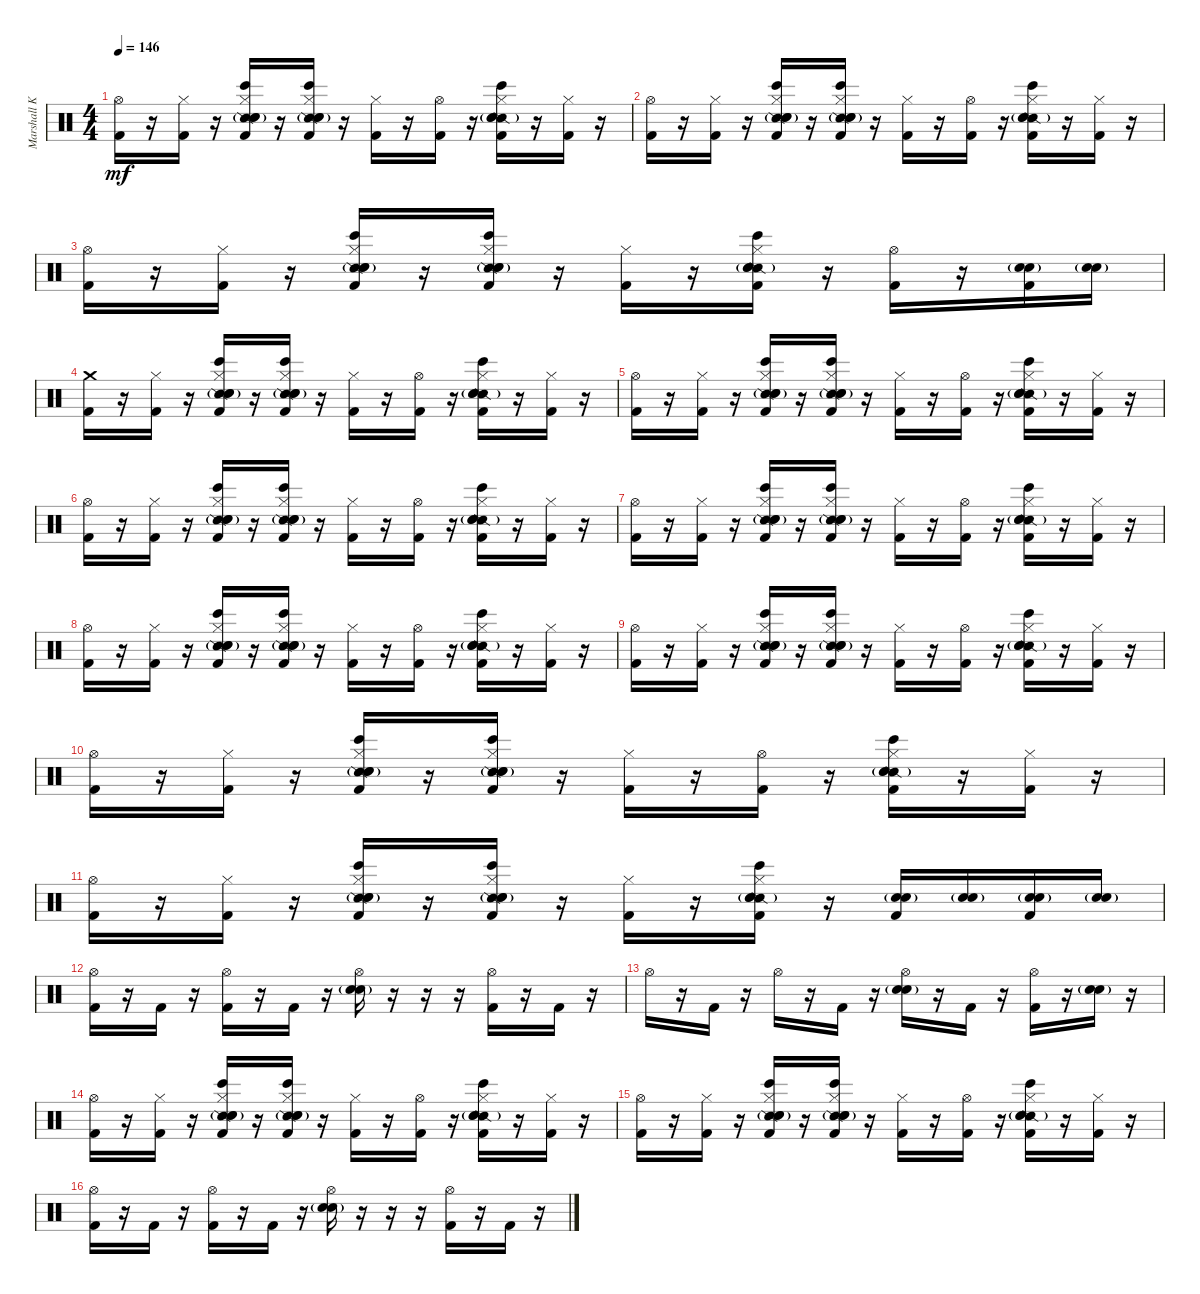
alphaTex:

\track ("Marshall Kilpatric" "Marshall K") {instrument percussion}
\staff {score}
\articulation defaults
\ts (4 4)
\tempo 146
\clef neutral
\ks c
("Hi-Hat (open)" "Kick (hit) 2").16{dy mf} r.16 ("Hi-Hat (closed)" "Kick (hit) 2").16 r.16 ("Snare (side stick) 2" "Snare (hit) 2"{g} "Bongo High (hit)" "Electric Snare (hit)" "Hi-Hat (closed)" "Kick (hit) 2").16 r.16 ("Snare (side stick) 2" "Snare (hit) 2"{g} "Bongo High (hit)" "Electric Snare (hit)" "Hi-Hat (closed)" "Kick (hit) 2").16 r.16 ("Hi-Hat (closed)" "Kick (hit) 2").16 r.16 ("Hi-Hat (open)" "Kick (hit) 2").16 r.16 ("Snare (side stick) 2" "Snare (hit) 2"{g} "Bongo High (hit)" "Electric Snare (hit)" "Hi-Hat (closed)" "Kick (hit) 2").16 r.16 ("Hi-Hat (closed)" "Kick (hit) 2").16 r.16 |
("Hi-Hat (open)" "Kick (hit) 2").16 r.16 ("Hi-Hat (closed)" "Kick (hit) 2").16 r.16 ("Snare (side stick) 2" "Snare (hit) 2"{g} "Bongo High (hit)" "Electric Snare (hit)" "Hi-Hat (closed)" "Kick (hit) 2").16 r.16 ("Snare (side stick) 2" "Snare (hit) 2"{g} "Bongo High (hit)" "Electric Snare (hit)" "Hi-Hat (closed)" "Kick (hit) 2").16 r.16 ("Hi-Hat (closed)" "Kick (hit) 2").16 r.16 ("Hi-Hat (open)" "Kick (hit) 2").16 r.16 ("Snare (side stick) 2" "Snare (hit) 2"{g} "Bongo High (hit)" "Electric Snare (hit)" "Hi-Hat (closed)" "Kick (hit) 2").16 r.16 ("Hi-Hat (closed)" "Kick (hit) 2").16 r.16 |
("Hi-Hat (open)" "Kick (hit) 2").16 r.16 ("Hi-Hat (closed)" "Kick (hit) 2").16 r.16 ("Snare (side stick) 2" "Snare (hit) 2"{g} "Bongo High (hit)" "Electric Snare (hit)" "Hi-Hat (closed)" "Kick (hit) 2").16 r.16 ("Snare (side stick) 2" "Snare (hit) 2"{g} "Bongo High (hit)" "Electric Snare (hit)" "Hi-Hat (closed)" "Kick (hit) 2").16 r.16 ("Hi-Hat (closed)" "Kick (hit) 2").16 r.16 ("Snare (side stick) 2" "Snare (hit) 2"{g} "Bongo High (hit)" "Electric Snare (hit)" "Hi-Hat (closed)" "Kick (hit) 2").16 r.16 ("Hi-Hat (open)" "Kick (hit) 2").16 r.16 ("Snare (hit) 2"{g} "Electric Snare (hit)" "Kick (hit) 2").16 ("Snare (hit) 2"{g} "Electric Snare (hit)").16 |
("Crash medium (hit)" "Kick (hit) 2").16 r.16 ("Hi-Hat (closed)" "Kick (hit) 2").16 r.16 ("Snare (side stick) 2" "Snare (hit) 2"{g} "Bongo High (hit)" "Electric Snare (hit)" "Hi-Hat (closed)" "Kick (hit) 2").16 r.16 ("Snare (side stick) 2" "Snare (hit) 2"{g} "Bongo High (hit)" "Electric Snare (hit)" "Hi-Hat (closed)" "Kick (hit) 2").16 r.16 ("Hi-Hat (closed)" "Kick (hit) 2").16 r.16 ("Hi-Hat (open)" "Kick (hit) 2").16 r.16 ("Snare (side stick) 2" "Snare (hit) 2"{g} "Bongo High (hit)" "Electric Snare (hit)" "Hi-Hat (closed)" "Kick (hit) 2").16 r.16 ("Hi-Hat (closed)" "Kick (hit) 2").16 r.16 |
("Hi-Hat (open)" "Kick (hit) 2").16 r.16 ("Hi-Hat (closed)" "Kick (hit) 2").16 r.16 ("Snare (side stick) 2" "Snare (hit) 2"{g} "Bongo High (hit)" "Electric Snare (hit)" "Hi-Hat (closed)" "Kick (hit) 2").16 r.16 ("Snare (side stick) 2" "Snare (hit) 2"{g} "Bongo High (hit)" "Electric Snare (hit)" "Hi-Hat (closed)" "Kick (hit) 2").16 r.16 ("Hi-Hat (closed)" "Kick (hit) 2").16 r.16 ("Hi-Hat (open)" "Kick (hit) 2").16 r.16 ("Snare (side stick) 2" "Snare (hit) 2"{g} "Bongo High (hit)" "Electric Snare (hit)" "Hi-Hat (closed)" "Kick (hit) 2").16 r.16 ("Hi-Hat (closed)" "Kick (hit) 2").16 r.16 |
("Hi-Hat (open)" "Kick (hit) 2").16 r.16 ("Hi-Hat (closed)" "Kick (hit) 2").16 r.16 ("Snare (side stick) 2" "Snare (hit) 2"{g} "Bongo High (hit)" "Electric Snare (hit)" "Hi-Hat (closed)" "Kick (hit) 2").16 r.16 ("Snare (side stick) 2" "Snare (hit) 2"{g} "Bongo High (hit)" "Electric Snare (hit)" "Hi-Hat (closed)" "Kick (hit) 2").16 r.16 ("Hi-Hat (closed)" "Kick (hit) 2").16 r.16 ("Hi-Hat (open)" "Kick (hit) 2").16 r.16 ("Snare (side stick) 2" "Snare (hit) 2"{g} "Bongo High (hit)" "Electric Snare (hit)" "Hi-Hat (closed)" "Kick (hit) 2").16 r.16 ("Hi-Hat (closed)" "Kick (hit) 2").16 r.16 |
("Hi-Hat (open)" "Kick (hit) 2").16 r.16 ("Hi-Hat (closed)" "Kick (hit) 2").16 r.16 ("Snare (side stick) 2" "Snare (hit) 2"{g} "Bongo High (hit)" "Electric Snare (hit)" "Hi-Hat (closed)" "Kick (hit) 2").16 r.16 ("Snare (side stick) 2" "Snare (hit) 2"{g} "Bongo High (hit)" "Electric Snare (hit)" "Hi-Hat (closed)" "Kick (hit) 2").16 r.16 ("Hi-Hat (closed)" "Kick (hit) 2").16 r.16 ("Hi-Hat (open)" "Kick (hit) 2").16 r.16 ("Snare (side stick) 2" "Snare (hit) 2"{g} "Bongo High (hit)" "Electric Snare (hit)" "Hi-Hat (closed)" "Kick (hit) 2").16 r.16 ("Hi-Hat (closed)" "Kick (hit) 2").16 r.16 |
("Hi-Hat (open)" "Kick (hit) 2").16 r.16 ("Hi-Hat (closed)" "Kick (hit) 2").16 r.16 ("Snare (side stick) 2" "Snare (hit) 2"{g} "Bongo High (hit)" "Electric Snare (hit)" "Hi-Hat (closed)" "Kick (hit) 2").16 r.16 ("Snare (side stick) 2" "Snare (hit) 2"{g} "Bongo High (hit)" "Electric Snare (hit)" "Hi-Hat (closed)" "Kick (hit) 2").16 r.16 ("Hi-Hat (closed)" "Kick (hit) 2").16 r.16 ("Hi-Hat (open)" "Kick (hit) 2").16 r.16 ("Snare (side stick) 2" "Snare (hit) 2"{g} "Bongo High (hit)" "Electric Snare (hit)" "Hi-Hat (closed)" "Kick (hit) 2").16 r.16 ("Hi-Hat (closed)" "Kick (hit) 2").16 r.16 |
("Hi-Hat (open)" "Kick (hit) 2").16 r.16 ("Hi-Hat (closed)" "Kick (hit) 2").16 r.16 ("Snare (side stick) 2" "Snare (hit) 2"{g} "Bongo High (hit)" "Electric Snare (hit)" "Hi-Hat (closed)" "Kick (hit) 2").16 r.16 ("Snare (side stick) 2" "Snare (hit) 2"{g} "Bongo High (hit)" "Electric Snare (hit)" "Hi-Hat (closed)" "Kick (hit) 2").16 r.16 ("Hi-Hat (closed)" "Kick (hit) 2").16 r.16 ("Hi-Hat (open)" "Kick (hit) 2").16 r.16 ("Snare (side stick) 2" "Snare (hit) 2"{g} "Bongo High (hit)" "Electric Snare (hit)" "Hi-Hat (closed)" "Kick (hit) 2").16 r.16 ("Hi-Hat (closed)" "Kick (hit) 2").16 r.16 |
("Hi-Hat (open)" "Kick (hit) 2").16 r.16 ("Hi-Hat (closed)" "Kick (hit) 2").16 r.16 ("Snare (side stick) 2" "Snare (hit) 2"{g} "Bongo High (hit)" "Electric Snare (hit)" "Hi-Hat (closed)" "Kick (hit) 2").16 r.16 ("Snare (side stick) 2" "Snare (hit) 2"{g} "Bongo High (hit)" "Electric Snare (hit)" "Hi-Hat (closed)" "Kick (hit) 2").16 r.16 ("Hi-Hat (closed)" "Kick (hit) 2").16 r.16 ("Hi-Hat (open)" "Kick (hit) 2").16 r.16 ("Snare (side stick) 2" "Snare (hit) 2"{g} "Bongo High (hit)" "Electric Snare (hit)" "Hi-Hat (closed)" "Kick (hit) 2").16 r.16 ("Hi-Hat (closed)" "Kick (hit) 2").16 r.16 |
("Hi-Hat (open)" "Kick (hit) 2").16 r.16 ("Hi-Hat (closed)" "Kick (hit) 2").16 r.16 ("Snare (side stick) 2" "Snare (hit) 2"{g} "Bongo High (hit)" "Electric Snare (hit)" "Hi-Hat (closed)" "Kick (hit) 2").16 r.16 ("Snare (side stick) 2" "Snare (hit) 2"{g} "Bongo High (hit)" "Electric Snare (hit)" "Hi-Hat (closed)" "Kick (hit) 2").16 r.16 ("Hi-Hat (closed)" "Kick (hit) 2").16 r.16 ("Snare (side stick) 2" "Snare (hit) 2"{g} "Bongo High (hit)" "Electric Snare (hit)" "Hi-Hat (closed)" "Kick (hit) 2").16 r.16 ("Snare (hit) 2"{g} "Electric Snare (hit)" "Kick (hit) 2").16 ("Snare (hit) 2"{g} "Electric Snare (hit)").16 ("Snare (hit) 2"{g} "Electric Snare (hit)" "Kick (hit) 2").16 ("Snare (hit) 2"{g} "Electric Snare (hit)").16 |
("Hi-Hat (open)" "Kick (hit) 2").16 r.16 "Kick (hit) 2".16 r.16 ("Hi-Hat (open)" "Kick (hit) 2").16 r.16 "Kick (hit) 2".16 r.16 ("Hi-Hat (open)" "Snare (hit) 2"{g} "Electric Snare (hit)").16 r.16 r.16 r.16 ("Hi-Hat (open)" "Kick (hit) 2").16 r.16 "Kick (hit) 2".16 r.16 |
"Hi-Hat (open)".16 r.16 "Kick (hit) 2".16 r.16 "Hi-Hat (open)".16 r.16 "Kick (hit) 2".16 r.16 ("Hi-Hat (open)" "Snare (hit) 2"{g} "Electric Snare (hit)").16 r.16 "Kick (hit) 2".16 r.16 ("Hi-Hat (open)" "Kick (hit) 2").16 r.16 ("Snare (hit) 2"{g} "Electric Snare (hit)").16 r.16 |
("Hi-Hat (open)" "Kick (hit) 2").16 r.16 ("Hi-Hat (closed)" "Kick (hit) 2").16 r.16 ("Snare (side stick) 2" "Snare (hit) 2"{g} "Bongo High (hit)" "Electric Snare (hit)" "Hi-Hat (closed)" "Kick (hit) 2").16 r.16 ("Snare (side stick) 2" "Snare (hit) 2"{g} "Bongo High (hit)" "Electric Snare (hit)" "Hi-Hat (closed)" "Kick (hit) 2").16 r.16 ("Hi-Hat (closed)" "Kick (hit) 2").16 r.16 ("Hi-Hat (open)" "Kick (hit) 2").16 r.16 ("Snare (side stick) 2" "Snare (hit) 2"{g} "Bongo High (hit)" "Electric Snare (hit)" "Hi-Hat (closed)" "Kick (hit) 2").16 r.16 ("Hi-Hat (closed)" "Kick (hit) 2").16 r.16 |
("Hi-Hat (open)" "Kick (hit) 2").16 r.16 ("Hi-Hat (closed)" "Kick (hit) 2").16 r.16 ("Snare (side stick) 2" "Snare (hit) 2"{g} "Bongo High (hit)" "Electric Snare (hit)" "Hi-Hat (closed)" "Kick (hit) 2").16 r.16 ("Snare (side stick) 2" "Snare (hit) 2"{g} "Bongo High (hit)" "Electric Snare (hit)" "Hi-Hat (closed)" "Kick (hit) 2").16 r.16 ("Hi-Hat (closed)" "Kick (hit) 2").16 r.16 ("Hi-Hat (open)" "Kick (hit) 2").16 r.16 ("Snare (side stick) 2" "Snare (hit) 2"{g} "Bongo High (hit)" "Electric Snare (hit)" "Hi-Hat (closed)" "Kick (hit) 2").16 r.16 ("Hi-Hat (closed)" "Kick (hit) 2").16 r.16 |
("Hi-Hat (open)" "Kick (hit) 2").16 r.16 "Kick (hit) 2".16 r.16 ("Hi-Hat (open)" "Kick (hit) 2").16 r.16 "Kick (hit) 2".16 r.16 ("Hi-Hat (open)" "Snare (hit) 2"{g} "Electric Snare (hit)").16 r.16 r.16 r.16 ("Hi-Hat (open)" "Kick (hit) 2").16 r.16 "Kick (hit) 2".16 r.16
